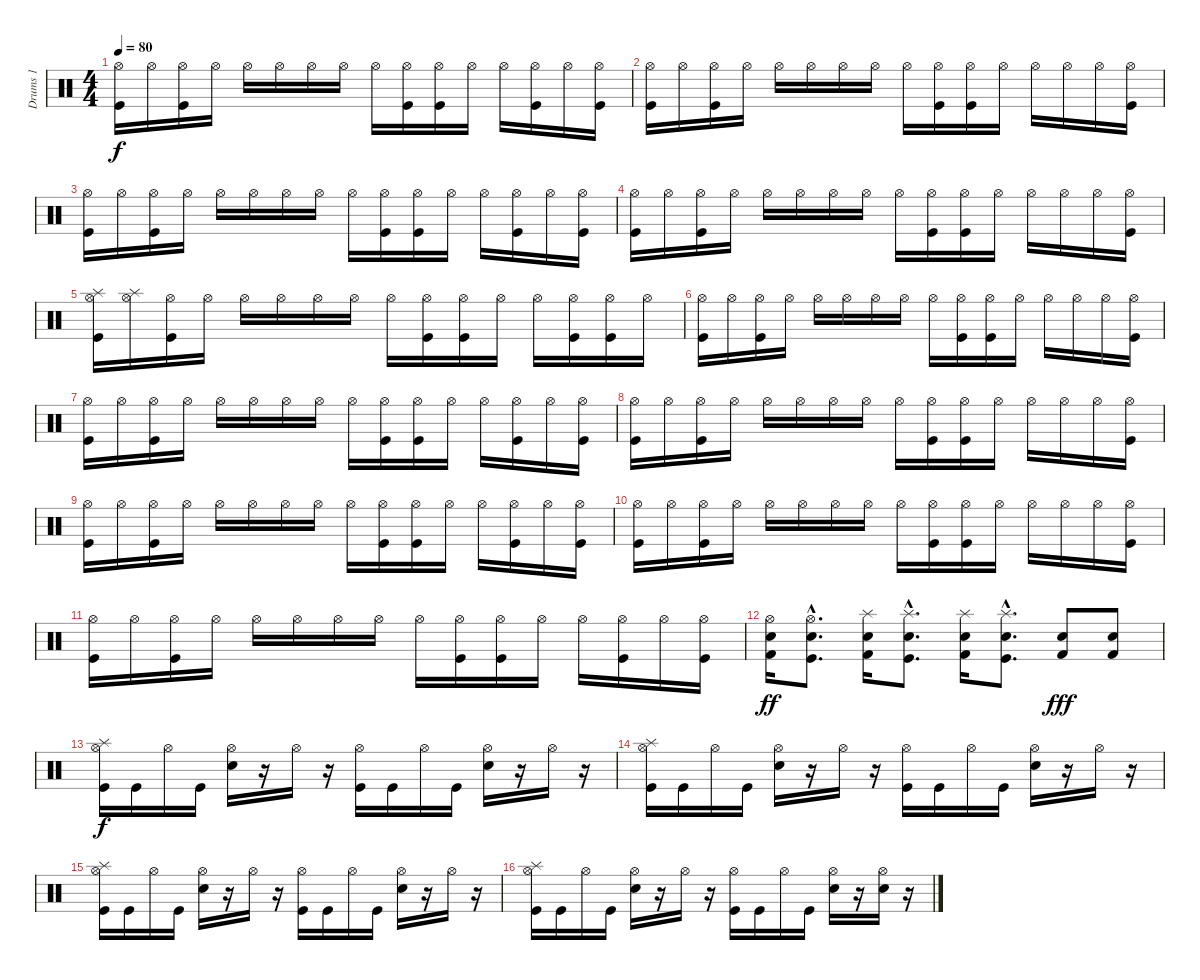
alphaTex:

\track ("Drums 1" "Drums 1") {instrument percussion}
\staff {score}
\articulation defaults
\ts (4 4)
\tempo 80
\clef neutral
\ks c
("Hi-Hat (open)" "Kick (hit)").16{dy f} "Hi-Hat (open)".16 ("Hi-Hat (open)" "Kick (hit)").16 "Hi-Hat (open)".16 "Hi-Hat (open)".16 "Hi-Hat (open)".16 "Hi-Hat (open)".16 "Hi-Hat (open)".16 "Hi-Hat (open)".16 ("Hi-Hat (open)" "Kick (hit)").16 ("Hi-Hat (open)" "Kick (hit)").16 "Hi-Hat (open)".16 "Hi-Hat (open)".16 ("Hi-Hat (open)" "Kick (hit)").16 "Hi-Hat (open)".16 ("Hi-Hat (open)" "Kick (hit)").16 |
("Hi-Hat (open)" "Kick (hit)").16 "Hi-Hat (open)".16 ("Hi-Hat (open)" "Kick (hit)").16 "Hi-Hat (open)".16 "Hi-Hat (open)".16 "Hi-Hat (open)".16 "Hi-Hat (open)".16 "Hi-Hat (open)".16 "Hi-Hat (open)".16 ("Hi-Hat (open)" "Kick (hit)").16 ("Hi-Hat (open)" "Kick (hit)").16 "Hi-Hat (open)".16 "Hi-Hat (open)".16 "Hi-Hat (open)".16 "Hi-Hat (open)".16 ("Hi-Hat (open)" "Kick (hit)").16 |
("Hi-Hat (open)" "Kick (hit)").16 "Hi-Hat (open)".16 ("Hi-Hat (open)" "Kick (hit)").16 "Hi-Hat (open)".16 "Hi-Hat (open)".16 "Hi-Hat (open)".16 "Hi-Hat (open)".16 "Hi-Hat (open)".16 "Hi-Hat (open)".16 ("Hi-Hat (open)" "Kick (hit)").16 ("Hi-Hat (open)" "Kick (hit)").16 "Hi-Hat (open)".16 "Hi-Hat (open)".16 ("Hi-Hat (open)" "Kick (hit)").16 "Hi-Hat (open)".16 ("Hi-Hat (open)" "Kick (hit)").16 |
("Hi-Hat (open)" "Kick (hit)").16 "Hi-Hat (open)".16 ("Hi-Hat (open)" "Kick (hit)").16 "Hi-Hat (open)".16 "Hi-Hat (open)".16 "Hi-Hat (open)".16 "Hi-Hat (open)".16 "Hi-Hat (open)".16 "Hi-Hat (open)".16 ("Hi-Hat (open)" "Kick (hit)").16 ("Hi-Hat (open)" "Kick (hit)").16 "Hi-Hat (open)".16 "Hi-Hat (open)".16 "Hi-Hat (open)".16 "Hi-Hat (open)".16 ("Hi-Hat (open)" "Kick (hit)").16 |
("Splash (hit)" "Hi-Hat (open)" "Kick (hit)").16 ("Splash (hit)" "Hi-Hat (open)").16 ("Hi-Hat (open)" "Kick (hit)").16 "Hi-Hat (open)".16 "Hi-Hat (open)".16 "Hi-Hat (open)".16 "Hi-Hat (open)".16 "Hi-Hat (open)".16 "Hi-Hat (open)".16 ("Hi-Hat (open)" "Kick (hit)").16 ("Hi-Hat (open)" "Kick (hit)").16 "Hi-Hat (open)".16 "Hi-Hat (open)".16 ("Hi-Hat (open)" "Kick (hit)").16 ("Hi-Hat (open)" "Kick (hit)").16 "Hi-Hat (open)".16 |
("Hi-Hat (open)" "Kick (hit)").16 "Hi-Hat (open)".16 ("Hi-Hat (open)" "Kick (hit)").16 "Hi-Hat (open)".16 "Hi-Hat (open)".16 "Hi-Hat (open)".16 "Hi-Hat (open)".16 "Hi-Hat (open)".16 "Hi-Hat (open)".16 ("Hi-Hat (open)" "Kick (hit)").16 ("Hi-Hat (open)" "Kick (hit)").16 "Hi-Hat (open)".16 "Hi-Hat (open)".16 "Hi-Hat (open)".16 "Hi-Hat (open)".16 ("Hi-Hat (open)" "Kick (hit)").16 |
("Hi-Hat (open)" "Kick (hit)").16 "Hi-Hat (open)".16 ("Hi-Hat (open)" "Kick (hit)").16 "Hi-Hat (open)".16 "Hi-Hat (open)".16 "Hi-Hat (open)".16 "Hi-Hat (open)".16 "Hi-Hat (open)".16 "Hi-Hat (open)".16 ("Hi-Hat (open)" "Kick (hit)").16 ("Hi-Hat (open)" "Kick (hit)").16 "Hi-Hat (open)".16 "Hi-Hat (open)".16 ("Hi-Hat (open)" "Kick (hit)").16 "Hi-Hat (open)".16 ("Hi-Hat (open)" "Kick (hit)").16 |
("Hi-Hat (open)" "Kick (hit)").16 "Hi-Hat (open)".16 ("Hi-Hat (open)" "Kick (hit)").16 "Hi-Hat (open)".16 "Hi-Hat (open)".16 "Hi-Hat (open)".16 "Hi-Hat (open)".16 "Hi-Hat (open)".16 "Hi-Hat (open)".16 ("Hi-Hat (open)" "Kick (hit)").16 ("Hi-Hat (open)" "Kick (hit)").16 "Hi-Hat (open)".16 "Hi-Hat (open)".16 "Hi-Hat (open)".16 "Hi-Hat (open)".16 ("Hi-Hat (open)" "Kick (hit)").16 |
("Hi-Hat (open)" "Kick (hit)").16 "Hi-Hat (open)".16 ("Hi-Hat (open)" "Kick (hit)").16 "Hi-Hat (open)".16 "Hi-Hat (open)".16 "Hi-Hat (open)".16 "Hi-Hat (open)".16 "Hi-Hat (open)".16 "Hi-Hat (open)".16 ("Hi-Hat (open)" "Kick (hit)").16 ("Hi-Hat (open)" "Kick (hit)").16 "Hi-Hat (open)".16 "Hi-Hat (open)".16 ("Hi-Hat (open)" "Kick (hit)").16 "Hi-Hat (open)".16 ("Hi-Hat (open)" "Kick (hit)").16 |
("Hi-Hat (open)" "Kick (hit)").16 "Hi-Hat (open)".16 ("Hi-Hat (open)" "Kick (hit)").16 "Hi-Hat (open)".16 "Hi-Hat (open)".16 "Hi-Hat (open)".16 "Hi-Hat (open)".16 "Hi-Hat (open)".16 "Hi-Hat (open)".16 ("Hi-Hat (open)" "Kick (hit)").16 ("Hi-Hat (open)" "Kick (hit)").16 "Hi-Hat (open)".16 "Hi-Hat (open)".16 "Hi-Hat (open)".16 "Hi-Hat (open)".16 ("Hi-Hat (open)" "Kick (hit)").16 |
("Hi-Hat (open)" "Kick (hit)").16 "Hi-Hat (open)".16 ("Hi-Hat (open)" "Kick (hit)").16 "Hi-Hat (open)".16 "Hi-Hat (open)".16 "Hi-Hat (open)".16 "Hi-Hat (open)".16 "Hi-Hat (open)".16 "Hi-Hat (open)".16 ("Hi-Hat (open)" "Kick (hit)").16 ("Hi-Hat (open)" "Kick (hit)").16 "Hi-Hat (open)".16 "Hi-Hat (open)".16 ("Hi-Hat (open)" "Kick (hit)").16 "Hi-Hat (open)".16 ("Hi-Hat (open)" "Kick (hit)").16 |
("Hi-Hat (open)" "Electric Snare (hit)" "Kick (hit) 2").16{dy ff} ("Hi-Hat (open)"{hac} "Electric Snare (hit)"{hac} "Kick (hit)"{hac}).8{d} ("Splash (hit)" "Electric Snare (hit)" "Kick (hit) 2").16 ("Splash (hit)"{hac} "Electric Snare (hit)"{hac} "Kick (hit)"{hac}).8{d} ("Splash (hit)" "Electric Snare (hit)" "Kick (hit) 2").16 ("Splash (hit)"{hac} "Electric Snare (hit)"{hac} "Kick (hit)"{hac}).8{d} ("Electric Snare (hit)" "Kick (hit) 2").8{dy fff} ("Electric Snare (hit)" "Kick (hit) 2").8 |
("Splash (hit)" "Hi-Hat (open)" "Kick (hit)").16{dy f volume 16} "Kick (hit)".16 "Hi-Hat (open)".16 "Kick (hit)".16 ("Hi-Hat (open)" "Electric Snare (hit)").16 r.16 "Hi-Hat (open)".16 r.16 ("Hi-Hat (open)" "Kick (hit)").16 "Kick (hit)".16 "Hi-Hat (open)".16 "Kick (hit)".16 ("Hi-Hat (open)" "Electric Snare (hit)").16 r.16 "Hi-Hat (open)".16 r.16 |
("Splash (hit)" "Hi-Hat (open)" "Kick (hit)").16 "Kick (hit)".16 "Hi-Hat (open)".16 "Kick (hit)".16 ("Hi-Hat (open)" "Electric Snare (hit)").16 r.16 "Hi-Hat (open)".16 r.16 ("Hi-Hat (open)" "Kick (hit)").16 "Kick (hit)".16 "Hi-Hat (open)".16 "Kick (hit)".16 ("Hi-Hat (open)" "Electric Snare (hit)").16 r.16 "Hi-Hat (open)".16 r.16 |
("Splash (hit)" "Hi-Hat (open)" "Kick (hit)").16 "Kick (hit)".16 "Hi-Hat (open)".16 "Kick (hit)".16 ("Hi-Hat (open)" "Electric Snare (hit)").16 r.16 "Hi-Hat (open)".16 r.16 ("Hi-Hat (open)" "Kick (hit)").16 "Kick (hit)".16 "Hi-Hat (open)".16 "Kick (hit)".16 ("Hi-Hat (open)" "Electric Snare (hit)").16 r.16 "Hi-Hat (open)".16 r.16 |
("Splash (hit)" "Hi-Hat (open)" "Kick (hit)").16 "Kick (hit)".16 "Hi-Hat (open)".16 "Kick (hit)".16 ("Hi-Hat (open)" "Electric Snare (hit)").16 r.16 "Hi-Hat (open)".16 r.16 ("Hi-Hat (open)" "Kick (hit)").16 "Kick (hit)".16 "Hi-Hat (open)".16 "Kick (hit)".16 ("Hi-Hat (open)" "Electric Snare (hit)").16 r.16 ("Hi-Hat (open)" "Electric Snare (hit)").16 r.16
